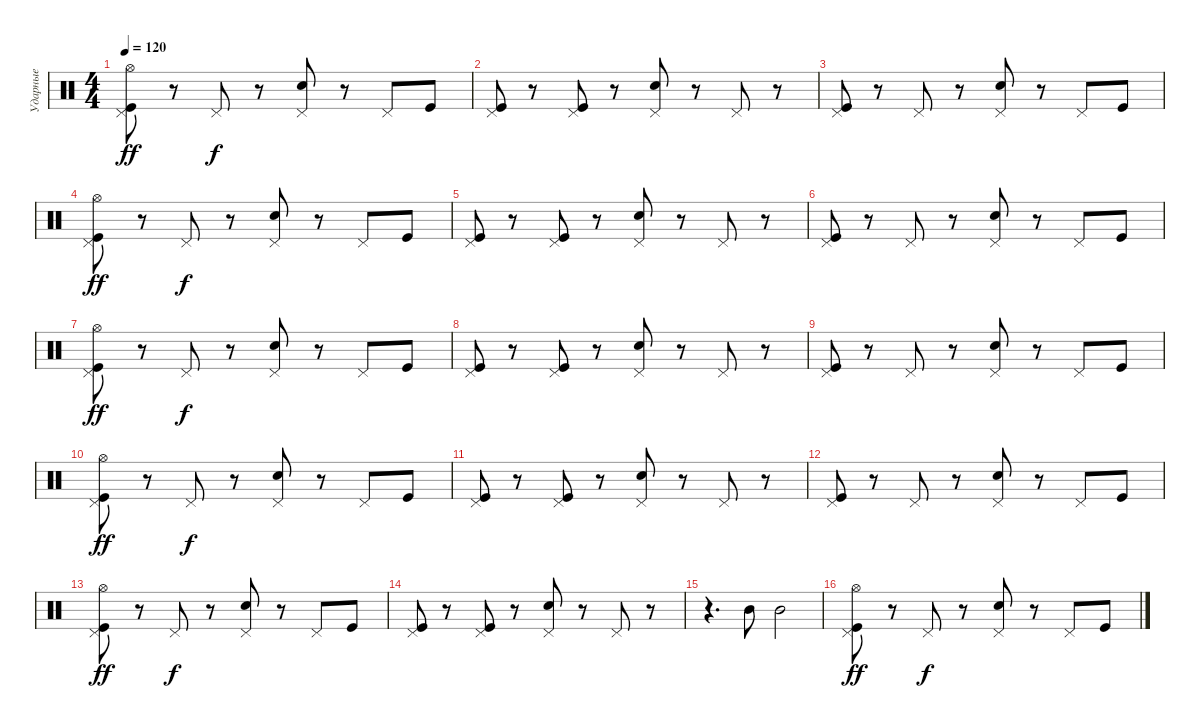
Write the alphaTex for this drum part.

\track ("Ударные" "Ударные") {instrument percussion}
\staff {score}
\articulation defaults
\ts (4 4)
\tempo 120
\clef neutral
\ks c
("Kick (hit)" "Pedal Hi-Hat (hit)" "Hi-Hat (open)").8{dy ff} r.8 "Pedal Hi-Hat (hit)".8{dy f} r.8 ("Snare (hit) 2" "Pedal Hi-Hat (hit)").8 r.8 "Pedal Hi-Hat (hit)".8 "Kick (hit)".8 |
("Pedal Hi-Hat (hit)" "Kick (hit)").8 r.8 ("Kick (hit)" "Pedal Hi-Hat (hit)").8 r.8 ("Snare (hit) 2" "Pedal Hi-Hat (hit)").8 r.8 "Pedal Hi-Hat (hit)".8 r.8 |
("Kick (hit)" "Pedal Hi-Hat (hit)").8 r.8 "Pedal Hi-Hat (hit)".8 r.8 ("Snare (hit) 2" "Pedal Hi-Hat (hit)").8 r.8 "Pedal Hi-Hat (hit)".8 "Kick (hit)".8 |
("Kick (hit)" "Pedal Hi-Hat (hit)" "Hi-Hat (open)").8{dy ff} r.8 "Pedal Hi-Hat (hit)".8{dy f} r.8 ("Snare (hit) 2" "Pedal Hi-Hat (hit)").8 r.8 "Pedal Hi-Hat (hit)".8 "Kick (hit)".8 |
("Pedal Hi-Hat (hit)" "Kick (hit)").8 r.8 ("Kick (hit)" "Pedal Hi-Hat (hit)").8 r.8 ("Snare (hit) 2" "Pedal Hi-Hat (hit)").8 r.8 "Pedal Hi-Hat (hit)".8 r.8 |
("Kick (hit)" "Pedal Hi-Hat (hit)").8 r.8 "Pedal Hi-Hat (hit)".8 r.8 ("Snare (hit) 2" "Pedal Hi-Hat (hit)").8 r.8 "Pedal Hi-Hat (hit)".8 "Kick (hit)".8 |
("Kick (hit)" "Pedal Hi-Hat (hit)" "Hi-Hat (open)").8{dy ff} r.8 "Pedal Hi-Hat (hit)".8{dy f} r.8 ("Snare (hit) 2" "Pedal Hi-Hat (hit)").8 r.8 "Pedal Hi-Hat (hit)".8 "Kick (hit)".8 |
("Pedal Hi-Hat (hit)" "Kick (hit)").8 r.8 ("Kick (hit)" "Pedal Hi-Hat (hit)").8 r.8 ("Snare (hit) 2" "Pedal Hi-Hat (hit)").8 r.8 "Pedal Hi-Hat (hit)".8 r.8 |
("Kick (hit)" "Pedal Hi-Hat (hit)").8 r.8 "Pedal Hi-Hat (hit)".8 r.8 ("Snare (hit) 2" "Pedal Hi-Hat (hit)").8 r.8 "Pedal Hi-Hat (hit)".8 "Kick (hit)".8 |
("Kick (hit)" "Pedal Hi-Hat (hit)" "Hi-Hat (open)").8{dy ff} r.8 "Pedal Hi-Hat (hit)".8{dy f} r.8 ("Snare (hit) 2" "Pedal Hi-Hat (hit)").8 r.8 "Pedal Hi-Hat (hit)".8 "Kick (hit)".8 |
("Pedal Hi-Hat (hit)" "Kick (hit)").8 r.8 ("Kick (hit)" "Pedal Hi-Hat (hit)").8 r.8 ("Snare (hit) 2" "Pedal Hi-Hat (hit)").8 r.8 "Pedal Hi-Hat (hit)".8 r.8 |
("Kick (hit)" "Pedal Hi-Hat (hit)").8 r.8 "Pedal Hi-Hat (hit)".8 r.8 ("Snare (hit) 2" "Pedal Hi-Hat (hit)").8 r.8 "Pedal Hi-Hat (hit)".8 "Kick (hit)".8 |
("Kick (hit)" "Pedal Hi-Hat (hit)" "Hi-Hat (open)").8{dy ff} r.8 "Pedal Hi-Hat (hit)".8{dy f} r.8 ("Snare (hit) 2" "Pedal Hi-Hat (hit)").8 r.8 "Pedal Hi-Hat (hit)".8 "Kick (hit)".8 |
("Pedal Hi-Hat (hit)" "Kick (hit)").8 r.8 ("Kick (hit)" "Pedal Hi-Hat (hit)").8 r.8 ("Snare (hit) 2" "Pedal Hi-Hat (hit)").8 r.8 "Pedal Hi-Hat (hit)".8 r.8 |
r.4{d} "Mid Tom (hit)".8 "Mid Tom (hit)".2 |
("Kick (hit)" "Pedal Hi-Hat (hit)" "Hi-Hat (open)").8{dy ff} r.8 "Pedal Hi-Hat (hit)".8{dy f} r.8 ("Snare (hit) 2" "Pedal Hi-Hat (hit)").8 r.8 "Pedal Hi-Hat (hit)".8 "Kick (hit)".8
